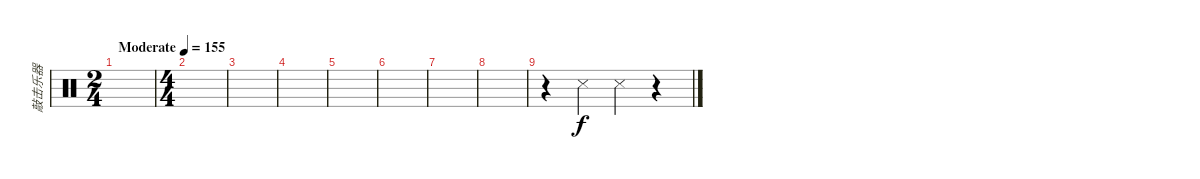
\track ("敲击乐器" "敲击乐器") {instrument percussion}
\staff {score}
\articulation defaults
\ts (2 4)
\tempo (155 "Moderate")
\clef neutral
\ks c
|
\ts (4 4)
|
|
|
|
|
|
|
r.4 "Snare (side stick) 3".4 "Snare (side stick) 3".4 r.4
